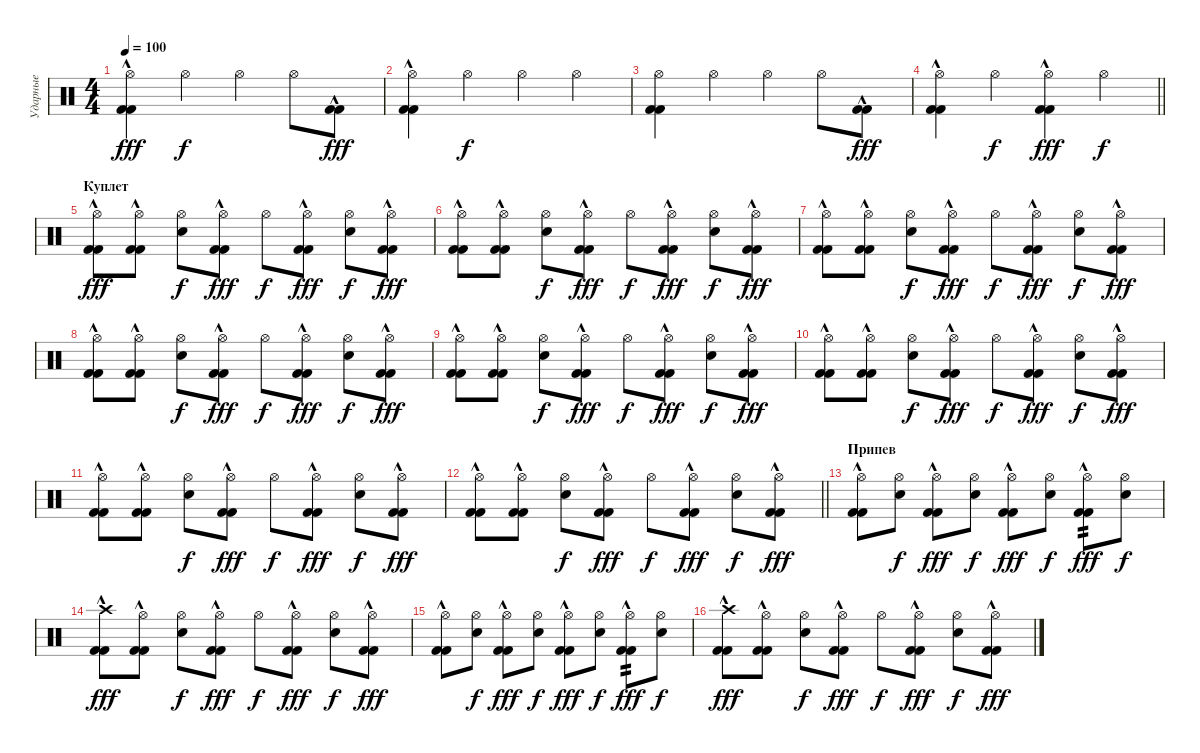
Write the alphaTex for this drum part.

\track ("Ударные" "Ударные") {instrument percussion}
\staff {score}
\articulation defaults
\ts (4 4)
\tempo 100
\clef neutral
\ks c
("Hi-Hat (open)" "Kick (hit) 2"{hac} "Kick (hit) 2").4{dy fff} "Hi-Hat (open)".4{dy f} "Hi-Hat (open)".4 "Hi-Hat (open)".8 ("Kick (hit) 2"{hac} "Kick (hit) 2").8{dy fff} |
("Hi-Hat (open)" "Kick (hit) 2"{hac} "Kick (hit) 2").4 "Hi-Hat (open)".4{dy f} "Hi-Hat (open)".4 "Hi-Hat (open)".4 |
("Hi-Hat (open)" "Kick (hit) 2" "Kick (hit) 2").4 "Hi-Hat (open)".4 "Hi-Hat (open)".4 "Hi-Hat (open)".8 ("Kick (hit) 2"{hac} "Kick (hit) 2").8{dy fff} |
\barLineRight lightlight
("Hi-Hat (open)" "Kick (hit) 2"{hac} "Kick (hit) 2").4 "Hi-Hat (open)".4{dy f} ("Hi-Hat (open)" "Kick (hit) 2"{hac} "Kick (hit) 2").4{dy fff} "Hi-Hat (open)".4{dy f} |
\section ("" "Куплет")
("Hi-Hat (open)" "Kick (hit) 2"{hac} "Kick (hit) 2").8{dy fff} ("Hi-Hat (open)" "Kick (hit) 2"{hac} "Kick (hit) 2").8 ("Hi-Hat (open)" "Electric Snare (hit)").8{dy f} ("Hi-Hat (open)" "Kick (hit) 2"{hac} "Kick (hit) 2").8{dy fff} "Hi-Hat (open)".8{dy f} ("Hi-Hat (open)" "Kick (hit) 2"{hac} "Kick (hit) 2").8{dy fff} ("Hi-Hat (open)" "Electric Snare (hit)").8{dy f} ("Hi-Hat (open)" "Kick (hit) 2"{hac} "Kick (hit) 2").8{dy fff} |
("Hi-Hat (open)" "Kick (hit) 2"{hac} "Kick (hit) 2").8 ("Hi-Hat (open)" "Kick (hit) 2"{hac} "Kick (hit) 2").8 ("Hi-Hat (open)" "Electric Snare (hit)").8{dy f} ("Hi-Hat (open)" "Kick (hit) 2"{hac} "Kick (hit) 2").8{dy fff} "Hi-Hat (open)".8{dy f} ("Hi-Hat (open)" "Kick (hit) 2"{hac} "Kick (hit) 2").8{dy fff} ("Hi-Hat (open)" "Electric Snare (hit)").8{dy f} ("Hi-Hat (open)" "Kick (hit) 2"{hac} "Kick (hit) 2").8{dy fff} |
("Hi-Hat (open)" "Kick (hit) 2"{hac} "Kick (hit) 2").8 ("Hi-Hat (open)" "Kick (hit) 2"{hac} "Kick (hit) 2").8 ("Hi-Hat (open)" "Electric Snare (hit)").8{dy f} ("Hi-Hat (open)" "Kick (hit) 2"{hac} "Kick (hit) 2").8{dy fff} "Hi-Hat (open)".8{dy f} ("Hi-Hat (open)" "Kick (hit) 2"{hac} "Kick (hit) 2").8{dy fff} ("Hi-Hat (open)" "Electric Snare (hit)").8{dy f} ("Hi-Hat (open)" "Kick (hit) 2"{hac} "Kick (hit) 2").8{dy fff} |
("Hi-Hat (open)" "Kick (hit) 2"{hac} "Kick (hit) 2").8 ("Hi-Hat (open)" "Kick (hit) 2"{hac} "Kick (hit) 2").8 ("Hi-Hat (open)" "Electric Snare (hit)").8{dy f} ("Hi-Hat (open)" "Kick (hit) 2"{hac} "Kick (hit) 2").8{dy fff} "Hi-Hat (open)".8{dy f} ("Hi-Hat (open)" "Kick (hit) 2"{hac} "Kick (hit) 2").8{dy fff} ("Hi-Hat (open)" "Electric Snare (hit)").8{dy f} ("Hi-Hat (open)" "Kick (hit) 2"{hac} "Kick (hit) 2").8{dy fff} |
("Hi-Hat (open)" "Kick (hit) 2"{hac} "Kick (hit) 2").8 ("Hi-Hat (open)" "Kick (hit) 2"{hac} "Kick (hit) 2").8 ("Hi-Hat (open)" "Electric Snare (hit)").8{dy f} ("Hi-Hat (open)" "Kick (hit) 2"{hac} "Kick (hit) 2").8{dy fff} "Hi-Hat (open)".8{dy f} ("Hi-Hat (open)" "Kick (hit) 2"{hac} "Kick (hit) 2").8{dy fff} ("Hi-Hat (open)" "Electric Snare (hit)").8{dy f} ("Hi-Hat (open)" "Kick (hit) 2"{hac} "Kick (hit) 2").8{dy fff} |
("Hi-Hat (open)" "Kick (hit) 2"{hac} "Kick (hit) 2").8 ("Hi-Hat (open)" "Kick (hit) 2"{hac} "Kick (hit) 2").8 ("Hi-Hat (open)" "Electric Snare (hit)").8{dy f} ("Hi-Hat (open)" "Kick (hit) 2"{hac} "Kick (hit) 2").8{dy fff} "Hi-Hat (open)".8{dy f} ("Hi-Hat (open)" "Kick (hit) 2"{hac} "Kick (hit) 2").8{dy fff} ("Hi-Hat (open)" "Electric Snare (hit)").8{dy f} ("Hi-Hat (open)" "Kick (hit) 2"{hac} "Kick (hit) 2").8{dy fff} |
("Hi-Hat (open)" "Kick (hit) 2"{hac} "Kick (hit) 2").8 ("Hi-Hat (open)" "Kick (hit) 2"{hac} "Kick (hit) 2").8 ("Hi-Hat (open)" "Electric Snare (hit)").8{dy f} ("Hi-Hat (open)" "Kick (hit) 2"{hac} "Kick (hit) 2").8{dy fff} "Hi-Hat (open)".8{dy f} ("Hi-Hat (open)" "Kick (hit) 2"{hac} "Kick (hit) 2").8{dy fff} ("Hi-Hat (open)" "Electric Snare (hit)").8{dy f} ("Hi-Hat (open)" "Kick (hit) 2"{hac} "Kick (hit) 2").8{dy fff} |
\barLineRight lightlight
("Hi-Hat (open)" "Kick (hit) 2"{hac} "Kick (hit) 2").8 ("Hi-Hat (open)" "Kick (hit) 2"{hac} "Kick (hit) 2").8 ("Hi-Hat (open)" "Electric Snare (hit)").8{dy f} ("Hi-Hat (open)" "Kick (hit) 2"{hac} "Kick (hit) 2").8{dy fff} "Hi-Hat (open)".8{dy f} ("Hi-Hat (open)" "Kick (hit) 2"{hac} "Kick (hit) 2").8{dy fff} ("Hi-Hat (open)" "Electric Snare (hit)").8{dy f} ("Hi-Hat (open)" "Kick (hit) 2"{hac} "Kick (hit) 2").8{dy fff} |
\section ("" "Припев")
("Hi-Hat (open)" "Kick (hit) 2"{hac} "Kick (hit) 2").8 ("Hi-Hat (open)" "Electric Snare (hit)").8{dy f} ("Hi-Hat (open)" "Kick (hit) 2"{hac} "Kick (hit) 2").8{dy fff} ("Hi-Hat (open)" "Electric Snare (hit)").8{dy f} ("Hi-Hat (open)" "Kick (hit) 2"{hac} "Kick (hit) 2").8{dy fff} ("Hi-Hat (open)" "Electric Snare (hit)").8{dy f} ("Hi-Hat (open)" "Kick (hit) 2"{hac} "Kick (hit) 2").8{tp 2 dy fff} ("Hi-Hat (open)" "Electric Snare (hit)").8{dy f} |
("Crash high (hit)" "Kick (hit) 2"{hac} "Kick (hit) 2").8{dy fff} ("Hi-Hat (open)" "Kick (hit) 2"{hac} "Kick (hit) 2").8 ("Hi-Hat (open)" "Electric Snare (hit)").8{dy f} ("Hi-Hat (open)" "Kick (hit) 2"{hac} "Kick (hit) 2").8{dy fff} "Hi-Hat (open)".8{dy f} ("Hi-Hat (open)" "Kick (hit) 2"{hac} "Kick (hit) 2").8{dy fff} ("Hi-Hat (open)" "Electric Snare (hit)").8{dy f} ("Hi-Hat (open)" "Kick (hit) 2"{hac} "Kick (hit) 2").8{dy fff} |
("Hi-Hat (open)" "Kick (hit) 2"{hac} "Kick (hit) 2").8 ("Hi-Hat (open)" "Electric Snare (hit)").8{dy f} ("Hi-Hat (open)" "Kick (hit) 2"{hac} "Kick (hit) 2").8{dy fff} ("Hi-Hat (open)" "Electric Snare (hit)").8{dy f} ("Hi-Hat (open)" "Kick (hit) 2"{hac} "Kick (hit) 2").8{dy fff} ("Hi-Hat (open)" "Electric Snare (hit)").8{dy f} ("Hi-Hat (open)" "Kick (hit) 2"{hac} "Kick (hit) 2").8{tp 2 dy fff} ("Hi-Hat (open)" "Electric Snare (hit)").8{dy f} |
("Crash high (hit)" "Kick (hit) 2"{hac} "Kick (hit) 2").8{dy fff} ("Hi-Hat (open)" "Kick (hit) 2"{hac} "Kick (hit) 2").8 ("Hi-Hat (open)" "Electric Snare (hit)").8{dy f} ("Hi-Hat (open)" "Kick (hit) 2"{hac} "Kick (hit) 2").8{dy fff} "Hi-Hat (open)".8{dy f} ("Hi-Hat (open)" "Kick (hit) 2"{hac} "Kick (hit) 2").8{dy fff} ("Hi-Hat (open)" "Electric Snare (hit)").8{dy f} ("Hi-Hat (open)" "Kick (hit) 2"{hac} "Kick (hit) 2").8{dy fff}
